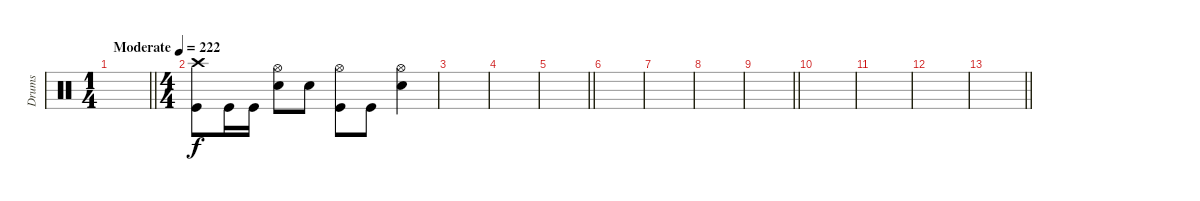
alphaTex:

\track ("Drums" "Drums") {instrument percussion}
\staff
\articulation defaults
\ts (1 4)
\tempo (222 "Moderate")
\clef neutral
\barLineRight lightlight
\ks c
|
\ts (4 4)
("Crash high (hit)" "Kick (hit)").8 "Kick (hit)".16 "Kick (hit)".16 ("Hi-Hat (open)" "Electric Snare (hit)").8 "Electric Snare (hit)".8 ("Hi-Hat (open)" "Kick (hit)").8 "Kick (hit)".8 ("Hi-Hat (open)" "Electric Snare (hit)").4 |
|
|
\barLineRight lightlight
|
|
|
|
\barLineRight lightlight
|
|
|
|
\barLineRight lightlight
